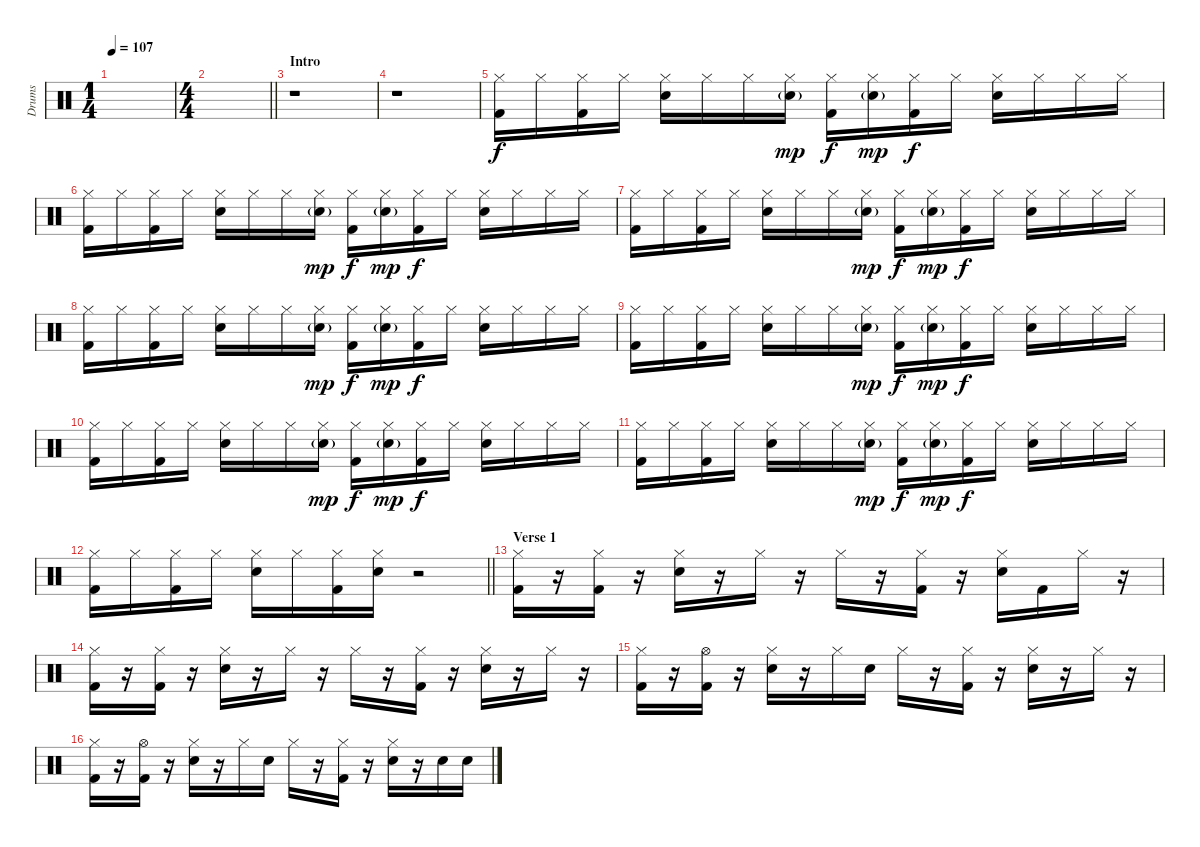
\track ("Drums" "Drums") {instrument percussion}
\staff {score}
\articulation defaults
\ts (1 4)
\tempo 107
\clef neutral
\ks c
|
\ts (4 4)
\barLineRight lightlight
|
\section ("" "Intro")
r.1 |
r.1 |
("Hi-Hat (closed)" "Kick (hit) 2").16 "Hi-Hat (closed)".16 ("Hi-Hat (closed)" "Kick (hit) 2").16 "Hi-Hat (closed)".16 ("Hi-Hat (closed)" "Electric Snare (hit)").16 "Hi-Hat (closed)".16 "Hi-Hat (closed)".16 ("Hi-Hat (closed)" "Electric Snare (hit)"{g}).16{dy mp} ("Hi-Hat (closed)" "Kick (hit) 2").16{dy f} ("Hi-Hat (closed)" "Electric Snare (hit)"{g}).16{dy mp} ("Hi-Hat (closed)" "Kick (hit) 2").16{dy f} "Hi-Hat (closed)".16 ("Hi-Hat (closed)" "Electric Snare (hit)").16 "Hi-Hat (closed)".16 "Hi-Hat (closed)".16 "Hi-Hat (closed)".16 |
("Hi-Hat (closed)" "Kick (hit) 2").16 "Hi-Hat (closed)".16 ("Hi-Hat (closed)" "Kick (hit) 2").16 "Hi-Hat (closed)".16 ("Hi-Hat (closed)" "Electric Snare (hit)").16 "Hi-Hat (closed)".16 "Hi-Hat (closed)".16 ("Hi-Hat (closed)" "Electric Snare (hit)"{g}).16{dy mp} ("Hi-Hat (closed)" "Kick (hit) 2").16{dy f} ("Hi-Hat (closed)" "Electric Snare (hit)"{g}).16{dy mp} ("Hi-Hat (closed)" "Kick (hit) 2").16{dy f} "Hi-Hat (closed)".16 ("Hi-Hat (closed)" "Electric Snare (hit)").16 "Hi-Hat (closed)".16 "Hi-Hat (closed)".16 "Hi-Hat (closed)".16 |
("Hi-Hat (closed)" "Kick (hit) 2").16 "Hi-Hat (closed)".16 ("Hi-Hat (closed)" "Kick (hit) 2").16 "Hi-Hat (closed)".16 ("Hi-Hat (closed)" "Electric Snare (hit)").16 "Hi-Hat (closed)".16 "Hi-Hat (closed)".16 ("Hi-Hat (closed)" "Electric Snare (hit)"{g}).16{dy mp} ("Hi-Hat (closed)" "Kick (hit) 2").16{dy f} ("Hi-Hat (closed)" "Electric Snare (hit)"{g}).16{dy mp} ("Hi-Hat (closed)" "Kick (hit) 2").16{dy f} "Hi-Hat (closed)".16 ("Hi-Hat (closed)" "Electric Snare (hit)").16 "Hi-Hat (closed)".16 "Hi-Hat (closed)".16 "Hi-Hat (closed)".16 |
("Hi-Hat (closed)" "Kick (hit) 2").16 "Hi-Hat (closed)".16 ("Hi-Hat (closed)" "Kick (hit) 2").16 "Hi-Hat (closed)".16 ("Hi-Hat (closed)" "Electric Snare (hit)").16 "Hi-Hat (closed)".16 "Hi-Hat (closed)".16 ("Hi-Hat (closed)" "Electric Snare (hit)"{g}).16{dy mp} ("Hi-Hat (closed)" "Kick (hit) 2").16{dy f} ("Hi-Hat (closed)" "Electric Snare (hit)"{g}).16{dy mp} ("Hi-Hat (closed)" "Kick (hit) 2").16{dy f} "Hi-Hat (closed)".16 ("Hi-Hat (closed)" "Electric Snare (hit)").16 "Hi-Hat (closed)".16 "Hi-Hat (closed)".16 "Hi-Hat (closed)".16 |
("Hi-Hat (closed)" "Kick (hit) 2").16 "Hi-Hat (closed)".16 ("Hi-Hat (closed)" "Kick (hit) 2").16 "Hi-Hat (closed)".16 ("Hi-Hat (closed)" "Electric Snare (hit)").16 "Hi-Hat (closed)".16 "Hi-Hat (closed)".16 ("Hi-Hat (closed)" "Electric Snare (hit)"{g}).16{dy mp} ("Hi-Hat (closed)" "Kick (hit) 2").16{dy f} ("Hi-Hat (closed)" "Electric Snare (hit)"{g}).16{dy mp} ("Hi-Hat (closed)" "Kick (hit) 2").16{dy f} "Hi-Hat (closed)".16 ("Hi-Hat (closed)" "Electric Snare (hit)").16 "Hi-Hat (closed)".16 "Hi-Hat (closed)".16 "Hi-Hat (closed)".16 |
("Hi-Hat (closed)" "Kick (hit) 2").16 "Hi-Hat (closed)".16 ("Hi-Hat (closed)" "Kick (hit) 2").16 "Hi-Hat (closed)".16 ("Hi-Hat (closed)" "Electric Snare (hit)").16 "Hi-Hat (closed)".16 "Hi-Hat (closed)".16 ("Hi-Hat (closed)" "Electric Snare (hit)"{g}).16{dy mp} ("Hi-Hat (closed)" "Kick (hit) 2").16{dy f} ("Hi-Hat (closed)" "Electric Snare (hit)"{g}).16{dy mp} ("Hi-Hat (closed)" "Kick (hit) 2").16{dy f} "Hi-Hat (closed)".16 ("Hi-Hat (closed)" "Electric Snare (hit)").16 "Hi-Hat (closed)".16 "Hi-Hat (closed)".16 "Hi-Hat (closed)".16 |
("Hi-Hat (closed)" "Kick (hit) 2").16 "Hi-Hat (closed)".16 ("Hi-Hat (closed)" "Kick (hit) 2").16 "Hi-Hat (closed)".16 ("Hi-Hat (closed)" "Electric Snare (hit)").16 "Hi-Hat (closed)".16 "Hi-Hat (closed)".16 ("Hi-Hat (closed)" "Electric Snare (hit)"{g}).16{dy mp} ("Hi-Hat (closed)" "Kick (hit) 2").16{dy f} ("Hi-Hat (closed)" "Electric Snare (hit)"{g}).16{dy mp} ("Hi-Hat (closed)" "Kick (hit) 2").16{dy f} "Hi-Hat (closed)".16 ("Hi-Hat (closed)" "Electric Snare (hit)").16 "Hi-Hat (closed)".16 "Hi-Hat (closed)".16 "Hi-Hat (closed)".16 |
\barLineRight lightlight
("Hi-Hat (closed)" "Kick (hit) 2").16 "Hi-Hat (closed)".16 ("Hi-Hat (closed)" "Kick (hit) 2").16 "Hi-Hat (closed)".16 ("Hi-Hat (closed)" "Electric Snare (hit)").16 "Hi-Hat (closed)".16 ("Hi-Hat (closed)" "Kick (hit) 2").16 ("Hi-Hat (closed)" "Electric Snare (hit)").16 r.2 |
\section ("" "Verse 1")
("Hi-Hat (closed)" "Kick (hit) 2").16 r.16 ("Hi-Hat (closed)" "Kick (hit) 2").16 r.16 ("Hi-Hat (closed)" "Electric Snare (hit)").16 r.16 "Hi-Hat (closed)".16 r.16 "Hi-Hat (closed)".16 r.16 ("Hi-Hat (closed)" "Kick (hit) 2").16 r.16 ("Hi-Hat (closed)" "Electric Snare (hit)").16 "Kick (hit) 2".16 "Hi-Hat (closed)".16 r.16 |
("Hi-Hat (closed)" "Kick (hit) 2").16 r.16 ("Hi-Hat (closed)" "Kick (hit) 2").16 r.16 ("Hi-Hat (closed)" "Electric Snare (hit)").16 r.16 "Hi-Hat (closed)".16 r.16 "Hi-Hat (closed)".16 r.16 ("Hi-Hat (closed)" "Kick (hit) 2").16 r.16 ("Hi-Hat (closed)" "Electric Snare (hit)").16 r.16 "Hi-Hat (closed)".16 r.16 |
("Hi-Hat (closed)" "Kick (hit) 2").16 r.16 ("Hi-Hat (open)" "Kick (hit) 2").16 r.16 ("Hi-Hat (closed)" "Electric Snare (hit)").16 r.16 "Hi-Hat (closed)".16 "Electric Snare (hit)".16 "Hi-Hat (closed)".16 r.16 ("Hi-Hat (closed)" "Kick (hit) 2").16 r.16 ("Hi-Hat (closed)" "Electric Snare (hit)").16 r.16 "Hi-Hat (closed)".16 r.16 |
("Hi-Hat (closed)" "Kick (hit) 2").16 r.16 ("Hi-Hat (open)" "Kick (hit) 2").16 r.16 ("Hi-Hat (closed)" "Electric Snare (hit)").16 r.16 "Hi-Hat (closed)".16 "Electric Snare (hit)".16 "Hi-Hat (closed)".16 r.16 ("Hi-Hat (closed)" "Kick (hit) 2").16 r.16 ("Hi-Hat (closed)" "Electric Snare (hit)").16 r.16 "Electric Snare (hit)".16 "Electric Snare (hit)".16
